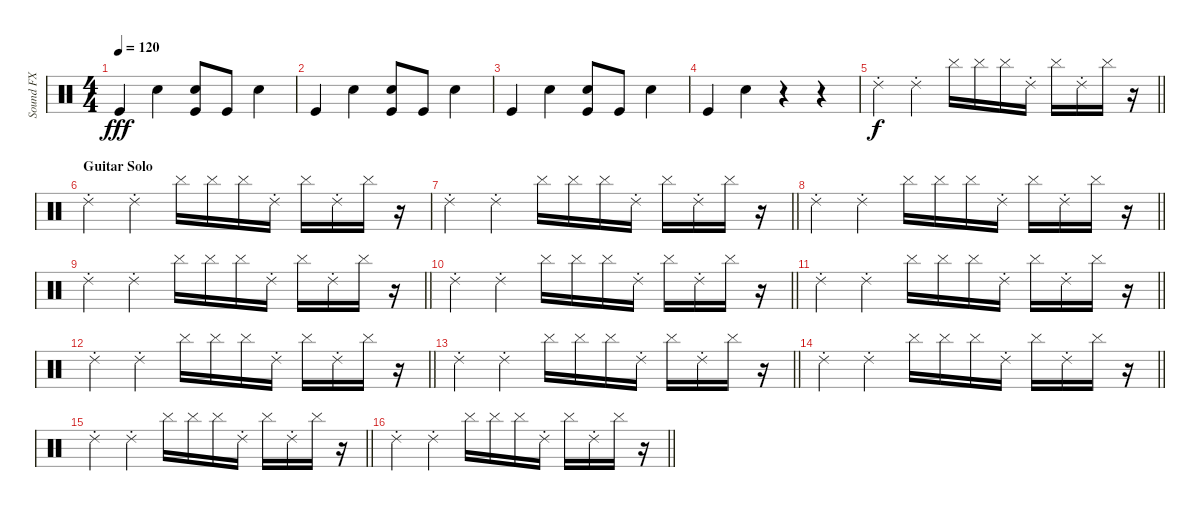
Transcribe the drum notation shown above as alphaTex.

\track ("Sound FX" "Sound FX") {instrument percussion}
\staff {score}
\articulation defaults
\ts (4 4)
\tempo 120
\clef neutral
\ks c "Kick (hit)".4{dy fff} "Hand Clap (hit)".4
("Metronome (bell)" "Kick (hit)").8 "Kick (hit)".8 "Hand Clap (hit)".4 |
"Kick (hit)".4 "Hand Clap (hit)".4 ("Metronome (bell)" "Kick (hit)").8 "Kick (hit)".8 "Hand Clap (hit)".4 |
"Kick (hit)".4 "Hand Clap (hit)".4 ("Metronome (bell)" "Kick (hit)").8 "Kick (hit)".8 "Hand Clap (hit)".4 |
"Kick (hit)".4 "Hand Clap (hit)".4 r.4 r.4 |
\barLineRight lightlight "Ride (choke) 2".4{dy f} "Ride (choke) 2".4 "Cymbal (hit)".16 "Cymbal (hit)".16 "Cymbal (hit)".16 "Ride (choke) 2".16 "Cymbal (hit)".16 "Ride (choke) 2".16 "Cymbal (hit)".16
r.16 |
\section ("" "Guitar Solo")
"Ride (choke) 2".4 "Ride (choke) 2".4 "Cymbal (hit)".16 "Cymbal (hit)".16 "Cymbal (hit)".16 "Ride (choke) 2".16 "Cymbal (hit)".16 "Ride (choke) 2".16 "Cymbal (hit)".16 r.16 |
\barLineRight lightlight "Ride (choke) 2".4 "Ride (choke) 2".4 "Cymbal (hit)".16 "Cymbal (hit)".16 "Cymbal (hit)".16 "Ride (choke) 2".16 "Cymbal (hit)".16 "Ride (choke) 2".16 "Cymbal (hit)".16
r.16 |
\barLineRight lightlight "Ride (choke) 2".4 "Ride (choke) 2".4 "Cymbal (hit)".16 "Cymbal (hit)".16 "Cymbal (hit)".16 "Ride (choke) 2".16 "Cymbal (hit)".16 "Ride (choke) 2".16 "Cymbal (hit)".16
r.16 |
\barLineRight lightlight "Ride (choke) 2".4 "Ride (choke) 2".4 "Cymbal (hit)".16 "Cymbal (hit)".16 "Cymbal (hit)".16 "Ride (choke) 2".16 "Cymbal (hit)".16 "Ride (choke) 2".16 "Cymbal (hit)".16
r.16 |
\barLineRight lightlight "Ride (choke) 2".4 "Ride (choke) 2".4 "Cymbal (hit)".16 "Cymbal (hit)".16 "Cymbal (hit)".16 "Ride (choke) 2".16 "Cymbal (hit)".16 "Ride (choke) 2".16 "Cymbal (hit)".16
r.16 |
\barLineRight lightlight "Ride (choke) 2".4 "Ride (choke) 2".4 "Cymbal (hit)".16 "Cymbal (hit)".16 "Cymbal (hit)".16 "Ride (choke) 2".16 "Cymbal (hit)".16 "Ride (choke) 2".16 "Cymbal (hit)".16
r.16 |
\barLineRight lightlight "Ride (choke) 2".4 "Ride (choke) 2".4 "Cymbal (hit)".16 "Cymbal (hit)".16 "Cymbal (hit)".16 "Ride (choke) 2".16 "Cymbal (hit)".16 "Ride (choke) 2".16 "Cymbal (hit)".16
r.16 |
\barLineRight lightlight "Ride (choke) 2".4 "Ride (choke) 2".4 "Cymbal (hit)".16 "Cymbal (hit)".16 "Cymbal (hit)".16 "Ride (choke) 2".16 "Cymbal (hit)".16 "Ride (choke) 2".16 "Cymbal (hit)".16
r.16 |
\barLineRight lightlight "Ride (choke) 2".4 "Ride (choke) 2".4 "Cymbal (hit)".16 "Cymbal (hit)".16 "Cymbal (hit)".16 "Ride (choke) 2".16 "Cymbal (hit)".16 "Ride (choke) 2".16 "Cymbal (hit)".16
r.16 |
\barLineRight lightlight "Ride (choke) 2".4 "Ride (choke) 2".4 "Cymbal (hit)".16 "Cymbal (hit)".16 "Cymbal (hit)".16 "Ride (choke) 2".16 "Cymbal (hit)".16 "Ride (choke) 2".16 "Cymbal (hit)".16
r.16 |
\barLineRight lightlight "Ride (choke) 2".4 "Ride (choke) 2".4 "Cymbal (hit)".16 "Cymbal (hit)".16 "Cymbal (hit)".16 "Ride (choke) 2".16 "Cymbal (hit)".16 "Ride (choke) 2".16 "Cymbal (hit)".16
r.16
